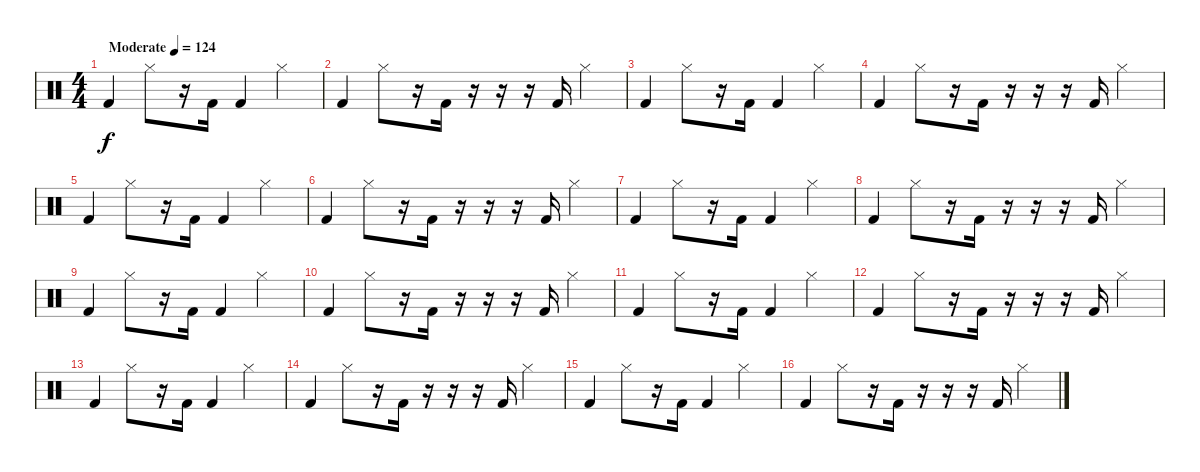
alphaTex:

\track "" {instrument percussion}
\staff {score}
\articulation defaults
\ts (4 4)
\section ("" "")
\tempo (124 "Moderate")
\clef neutral
\ks c "Kick (hit) 2".4{dy f} "Hi-Hat (closed)".8
r.16 "Kick (hit) 2".16 "Kick (hit) 2".4 "Hi-Hat (closed)".4 |
"Kick (hit) 2".4 "Hi-Hat (closed)".8 r.16 "Kick (hit) 2".16 r.16 r.16 r.16 "Kick (hit) 2".16 "Hi-Hat (closed)".4 |
"Kick (hit) 2".4 "Hi-Hat (closed)".8 r.16 "Kick (hit) 2".16 "Kick (hit) 2".4 "Hi-Hat (closed)".4 |
"Kick (hit) 2".4 "Hi-Hat (closed)".8 r.16 "Kick (hit) 2".16 r.16 r.16 r.16 "Kick (hit) 2".16 "Hi-Hat (closed)".4 |
"Kick (hit) 2".4 "Hi-Hat (closed)".8 r.16 "Kick (hit) 2".16 "Kick (hit) 2".4 "Hi-Hat (closed)".4 |
"Kick (hit) 2".4 "Hi-Hat (closed)".8 r.16 "Kick (hit) 2".16 r.16 r.16 r.16 "Kick (hit) 2".16 "Hi-Hat (closed)".4 |
"Kick (hit) 2".4 "Hi-Hat (closed)".8 r.16 "Kick (hit) 2".16 "Kick (hit) 2".4 "Hi-Hat (closed)".4 |
"Kick (hit) 2".4 "Hi-Hat (closed)".8 r.16 "Kick (hit) 2".16 r.16 r.16 r.16 "Kick (hit) 2".16 "Hi-Hat (closed)".4 |
"Kick (hit) 2".4 "Hi-Hat (closed)".8 r.16 "Kick (hit) 2".16 "Kick (hit) 2".4 "Hi-Hat (closed)".4 |
"Kick (hit) 2".4 "Hi-Hat (closed)".8 r.16 "Kick (hit) 2".16 r.16 r.16 r.16 "Kick (hit) 2".16 "Hi-Hat (closed)".4 |
"Kick (hit) 2".4 "Hi-Hat (closed)".8 r.16 "Kick (hit) 2".16 "Kick (hit) 2".4 "Hi-Hat (closed)".4 |
"Kick (hit) 2".4 "Hi-Hat (closed)".8 r.16 "Kick (hit) 2".16 r.16 r.16 r.16 "Kick (hit) 2".16 "Hi-Hat (closed)".4 |
"Kick (hit) 2".4 "Hi-Hat (closed)".8 r.16 "Kick (hit) 2".16 "Kick (hit) 2".4 "Hi-Hat (closed)".4 |
"Kick (hit) 2".4 "Hi-Hat (closed)".8 r.16 "Kick (hit) 2".16 r.16 r.16 r.16 "Kick (hit) 2".16 "Hi-Hat (closed)".4 |
"Kick (hit) 2".4 "Hi-Hat (closed)".8 r.16 "Kick (hit) 2".16 "Kick (hit) 2".4 "Hi-Hat (closed)".4 |
"Kick (hit) 2".4 "Hi-Hat (closed)".8 r.16 "Kick (hit) 2".16 r.16 r.16 r.16 "Kick (hit) 2".16 "Hi-Hat (closed)".4
